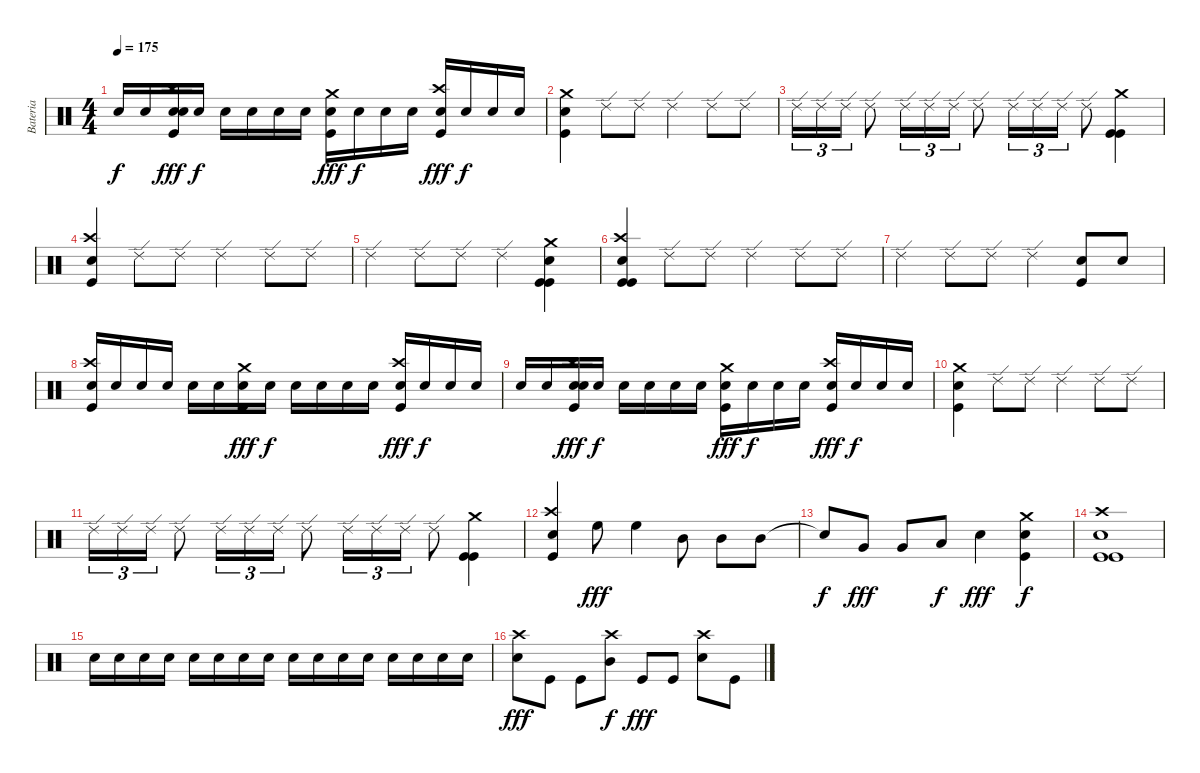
\track ("Bateria" "Bateria") {instrument percussion}
\staff {score}
\articulation defaults
\ts (4 4)
\tempo 175
\clef neutral
\ks c "Electric Snare (hit)".16{dy f} "Electric Snare (hit)".16
("Snare (hit)" "Crash high (hit)" "Electric Snare (hit)" "Kick (hit)").16{dy fff} "Electric Snare (hit)".16{dy f} "Electric Snare (hit)".16 "Electric Snare (hit)".16 "Electric Snare (hit)".16 "Electric Snare (hit)".16 ("Crash medium (hit)" "Electric Snare (hit)" "Kick (hit)").16{dy fff} "Electric Snare (hit)".16{dy f} "Electric Snare (hit)".16 "Electric Snare (hit)".16 ("Crash high (hit)" "Electric Snare (hit)" "Kick (hit)").16{dy fff} "Electric Snare (hit)".16{dy f} "Electric Snare (hit)".16 "Electric Snare (hit)".16 |
("Crash medium (hit)" "Electric Snare (hit)" "Kick (hit)").4 "Ride (edge) 2".8 "Ride (edge) 2".8 "Ride (edge) 2".4 "Ride (edge) 2".8 "Ride (edge) 2".8 |
"Ride (edge) 2".16{tu (3 2)} "Ride (edge) 2".16{tu (3 2)} "Ride (edge) 2".16{tu (3 2)} "Ride (edge) 2".8 "Ride (edge) 2".16{tu (3 2)} "Ride (edge) 2".16{tu (3 2)} "Ride (edge) 2".16{tu (3 2)} "Ride (edge) 2".8 "Ride (edge) 2".16{tu (3 2)} "Ride (edge) 2".16{tu (3 2)} "Ride (edge) 2".16{tu (3 2)} "Ride (edge) 2".8 ("Crash medium (hit)" "Kick (hit)" "Kick (hit)").4 |
("Crash high (hit)" "Electric Snare (hit)" "Kick (hit)").4 "Ride (edge) 2".8 "Ride (edge) 2".8 "Ride (edge) 2".4 "Ride (edge) 2".8 "Ride (edge) 2".8 |
"Ride (edge) 2".4 "Ride (edge) 2".8 "Ride (edge) 2".8 "Ride (edge) 2".4 ("Crash medium (hit)" "Electric Snare (hit)" "Kick (hit)" "Kick (hit)").4 |
("Crash high (hit)" "Electric Snare (hit)" "Kick (hit)" "Kick (hit)").4 "Ride (edge) 2".8 "Ride (edge) 2".8 "Ride (edge) 2".4 "Ride (edge) 2".8 "Ride (edge) 2".8 |
"Ride (edge) 2".4 "Ride (edge) 2".8 "Ride (edge) 2".8 "Ride (edge) 2".4 ("Electric Snare (hit)" "Kick (hit)").8 "Electric Snare (hit)".8 |
("Crash high (hit)" "Electric Snare (hit)" "Kick (hit)").16 "Electric Snare (hit)".16 "Electric Snare (hit)".16 "Electric Snare (hit)".16 "Electric Snare (hit)".16 "Electric Snare (hit)".16 ("Crash medium (hit)" "Electric Snare (hit)" "Kick (hit)").16{dy fff} "Electric Snare (hit)".16{dy f} "Electric Snare (hit)".16 "Electric Snare (hit)".16 "Electric Snare (hit)".16 "Electric Snare (hit)".16 ("Crash high (hit)" "Electric Snare (hit)" "Kick (hit)").16{dy fff} "Electric Snare (hit)".16{dy f} "Electric Snare (hit)".16 "Electric Snare (hit)".16 |
"Electric Snare (hit)".16 "Electric Snare (hit)".16 ("Snare (hit)" "Crash high (hit)" "Electric Snare (hit)" "Kick (hit)").16{dy fff} "Electric Snare (hit)".16{dy f} "Electric Snare (hit)".16 "Electric Snare (hit)".16 "Electric Snare (hit)".16 "Electric Snare (hit)".16 ("Crash medium (hit)" "Electric Snare (hit)" "Kick (hit)").16{dy fff} "Electric Snare (hit)".16{dy f} "Electric Snare (hit)".16 "Electric Snare (hit)".16 ("Crash high (hit)" "Electric Snare (hit)" "Kick (hit)").16{dy fff} "Electric Snare (hit)".16{dy f} "Electric Snare (hit)".16 "Electric Snare (hit)".16 |
("Crash medium (hit)" "Electric Snare (hit)" "Kick (hit)").4 "Ride (edge) 2".8 "Ride (edge) 2".8 "Ride (edge) 2".4 "Ride (edge) 2".8 "Ride (edge) 2".8 |
"Ride (edge) 2".16{tu (3 2)} "Ride (edge) 2".16{tu (3 2)} "Ride (edge) 2".16{tu (3 2)} "Ride (edge) 2".8 "Ride (edge) 2".16{tu (3 2)} "Ride (edge) 2".16{tu (3 2)} "Ride (edge) 2".16{tu (3 2)} "Ride (edge) 2".8 "Ride (edge) 2".16{tu (3 2)} "Ride (edge) 2".16{tu (3 2)} "Ride (edge) 2".16{tu (3 2)} "Ride (edge) 2".8 ("Crash medium (hit)" "Kick (hit)" "Kick (hit)").4 |
("Crash high (hit)" "Electric Snare (hit)" "Kick (hit)").4 "High Floor Tom (hit)".8{dy fff} "High Floor Tom (hit)".4 "Mid Tom (hit)".8 "Mid Tom (hit)".8 "Mid Tom (hit)".8 |
"Snare (hit)"{t}.8{dy f} "Very Low Tom (hit)".8{dy fff} "Very Low Tom (hit)".8 "Low Floor Tom (hit)".8{dy f} "Electric Snare (hit)".4{dy fff} ("Crash medium (hit)" "Electric Snare (hit)" "Kick (hit)").4{dy f} |
("Crash high (hit)" "Electric Snare (hit)" "Kick (hit)" "Kick (hit)").1 |
"Electric Snare (hit)".16 "Electric Snare (hit)".16 "Electric Snare (hit)".16 "Electric Snare (hit)".16 "Electric Snare (hit)".16 "Electric Snare (hit)".16 "Electric Snare (hit)".16 "Electric Snare (hit)".16 "Electric Snare (hit)".16 "Electric Snare (hit)".16 "Electric Snare (hit)".16 "Electric Snare (hit)".16 "Electric Snare (hit)".16 "Electric Snare (hit)".16 "Electric Snare (hit)".16 "Electric Snare (hit)".16 |
("Crash high (hit)" "Electric Snare (hit)").8{dy fff} "Kick (hit)".8 "Kick (hit)".8 ("Crash high (hit)" "Mid Tom (hit)").8{dy f} "Kick (hit)".8{dy fff} "Kick (hit)".8 ("Crash high (hit)" "Electric Snare (hit)").8 "Kick (hit)".8
